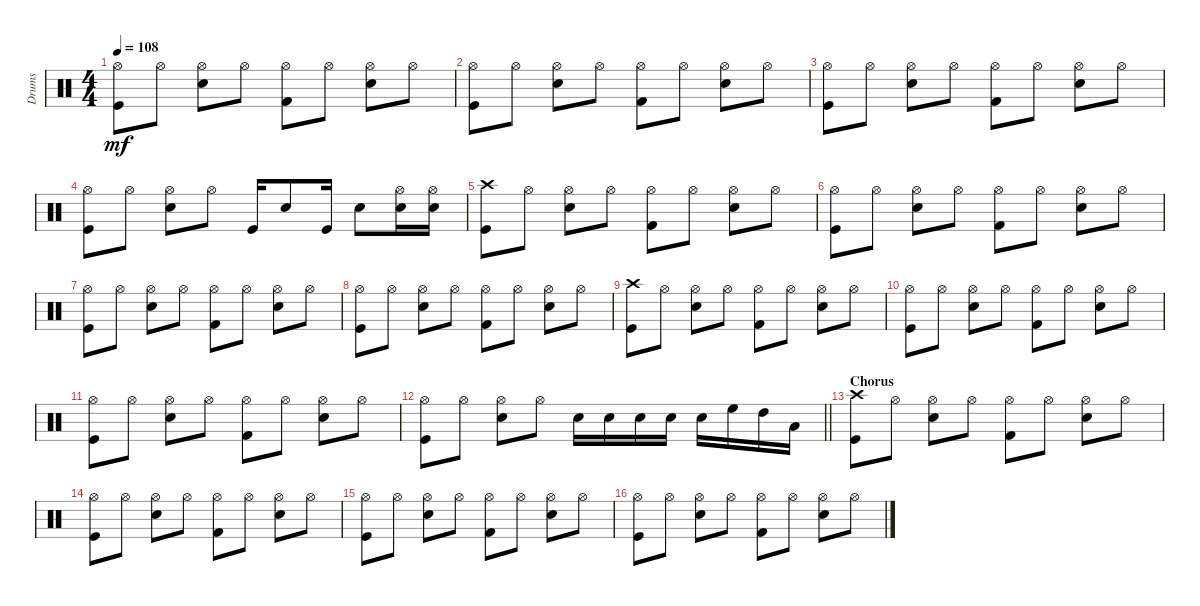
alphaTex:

\track ("Drums" "Drums") {instrument percussion}
\staff {score}
\articulation defaults
\ts (4 4)
\tempo 108
\clef neutral
\ks c
("Hi-Hat (open)" "Kick (hit)").8{dy mf} "Hi-Hat (open)".8 ("Hi-Hat (open)" "Snare (hit) 2").8 "Hi-Hat (open)".8 ("Hi-Hat (open)" "Kick (hit) 2").8 "Hi-Hat (open)".8 ("Hi-Hat (open)" "Snare (hit) 2").8 "Hi-Hat (open)".8 |
("Hi-Hat (open)" "Kick (hit)").8 "Hi-Hat (open)".8 ("Hi-Hat (open)" "Snare (hit) 2").8 "Hi-Hat (open)".8 ("Hi-Hat (open)" "Kick (hit) 2").8 "Hi-Hat (open)".8 ("Hi-Hat (open)" "Snare (hit) 2").8 "Hi-Hat (open)".8 |
("Hi-Hat (open)" "Kick (hit)").8 "Hi-Hat (open)".8 ("Hi-Hat (open)" "Snare (hit) 2").8 "Hi-Hat (open)".8 ("Hi-Hat (open)" "Kick (hit) 2").8 "Hi-Hat (open)".8 ("Hi-Hat (open)" "Snare (hit) 2").8 "Hi-Hat (open)".8 |
("Kick (hit)" "Hi-Hat (open)").8 "Hi-Hat (open)".8 ("Snare (hit) 2" "Hi-Hat (open)").8 "Hi-Hat (open)".8 "Kick (hit)".16 "Snare (hit) 2".8 "Kick (hit)".16 "Snare (hit) 2".8 ("Hi-Hat (open)" "Snare (hit) 2").16 ("Hi-Hat (open)" "Snare (hit) 2").16 |
("Crash high (hit)" "Kick (hit)").8 "Hi-Hat (open)".8 ("Hi-Hat (open)" "Snare (hit) 2").8 "Hi-Hat (open)".8 ("Hi-Hat (open)" "Kick (hit) 2").8 "Hi-Hat (open)".8 ("Hi-Hat (open)" "Snare (hit) 2").8 "Hi-Hat (open)".8 |
("Hi-Hat (open)" "Kick (hit)").8 "Hi-Hat (open)".8 ("Hi-Hat (open)" "Snare (hit) 2").8 "Hi-Hat (open)".8 ("Hi-Hat (open)" "Kick (hit) 2").8 "Hi-Hat (open)".8 ("Hi-Hat (open)" "Snare (hit) 2").8 "Hi-Hat (open)".8 |
("Hi-Hat (open)" "Kick (hit)").8 "Hi-Hat (open)".8 ("Hi-Hat (open)" "Snare (hit) 2").8 "Hi-Hat (open)".8 ("Hi-Hat (open)" "Kick (hit) 2").8 "Hi-Hat (open)".8 ("Hi-Hat (open)" "Snare (hit) 2").8 "Hi-Hat (open)".8 |
("Hi-Hat (open)" "Kick (hit)").8 "Hi-Hat (open)".8 ("Hi-Hat (open)" "Snare (hit) 2").8 "Hi-Hat (open)".8 ("Hi-Hat (open)" "Kick (hit) 2").8 "Hi-Hat (open)".8 ("Hi-Hat (open)" "Snare (hit) 2").8 "Hi-Hat (open)".8 |
("Crash high (hit)" "Kick (hit)").8 "Hi-Hat (open)".8 ("Hi-Hat (open)" "Snare (hit) 2").8 "Hi-Hat (open)".8 ("Hi-Hat (open)" "Kick (hit) 2").8 "Hi-Hat (open)".8 ("Hi-Hat (open)" "Snare (hit) 2").8 "Hi-Hat (open)".8 |
("Hi-Hat (open)" "Kick (hit)").8 "Hi-Hat (open)".8 ("Hi-Hat (open)" "Snare (hit) 2").8 "Hi-Hat (open)".8 ("Hi-Hat (open)" "Kick (hit) 2").8 "Hi-Hat (open)".8 ("Hi-Hat (open)" "Snare (hit) 2").8 "Hi-Hat (open)".8 |
("Hi-Hat (open)" "Kick (hit)").8 "Hi-Hat (open)".8 ("Hi-Hat (open)" "Snare (hit) 2").8 "Hi-Hat (open)".8 ("Hi-Hat (open)" "Kick (hit) 2").8 "Hi-Hat (open)".8 ("Hi-Hat (open)" "Snare (hit) 2").8 "Hi-Hat (open)".8 |
\barLineRight lightlight
("Kick (hit)" "Hi-Hat (open)").8 "Hi-Hat (open)".8 ("Snare (hit) 2" "Hi-Hat (open)").8 "Hi-Hat (open)".8 "Snare (hit) 2".16 "Snare (hit) 2".16 "Snare (hit) 2".16 "Snare (hit) 2".16 "Snare (hit) 2".16 "High Floor Tom (hit)".16 "High Tom (hit)".16 "Low Floor Tom (hit)".16 |
\section ("" "Chorus")
("Crash high (hit)" "Kick (hit)").8 "Hi-Hat (open)".8 ("Hi-Hat (open)" "Snare (hit) 2").8 "Hi-Hat (open)".8 ("Hi-Hat (open)" "Kick (hit) 2").8 "Hi-Hat (open)".8 ("Hi-Hat (open)" "Snare (hit) 2").8 "Hi-Hat (open)".8 |
("Hi-Hat (open)" "Kick (hit)").8 "Hi-Hat (open)".8 ("Hi-Hat (open)" "Snare (hit) 2").8 "Hi-Hat (open)".8 ("Hi-Hat (open)" "Kick (hit) 2").8 "Hi-Hat (open)".8 ("Hi-Hat (open)" "Snare (hit) 2").8 "Hi-Hat (open)".8 |
("Hi-Hat (open)" "Kick (hit)").8 "Hi-Hat (open)".8 ("Hi-Hat (open)" "Snare (hit) 2").8 "Hi-Hat (open)".8 ("Hi-Hat (open)" "Kick (hit) 2").8 "Hi-Hat (open)".8 ("Hi-Hat (open)" "Snare (hit) 2").8 "Hi-Hat (open)".8 |
("Hi-Hat (open)" "Kick (hit)").8 "Hi-Hat (open)".8 ("Hi-Hat (open)" "Snare (hit) 2").8 "Hi-Hat (open)".8 ("Hi-Hat (open)" "Kick (hit) 2").8 "Hi-Hat (open)".8 ("Hi-Hat (open)" "Snare (hit) 2").8 "Hi-Hat (open)".8
